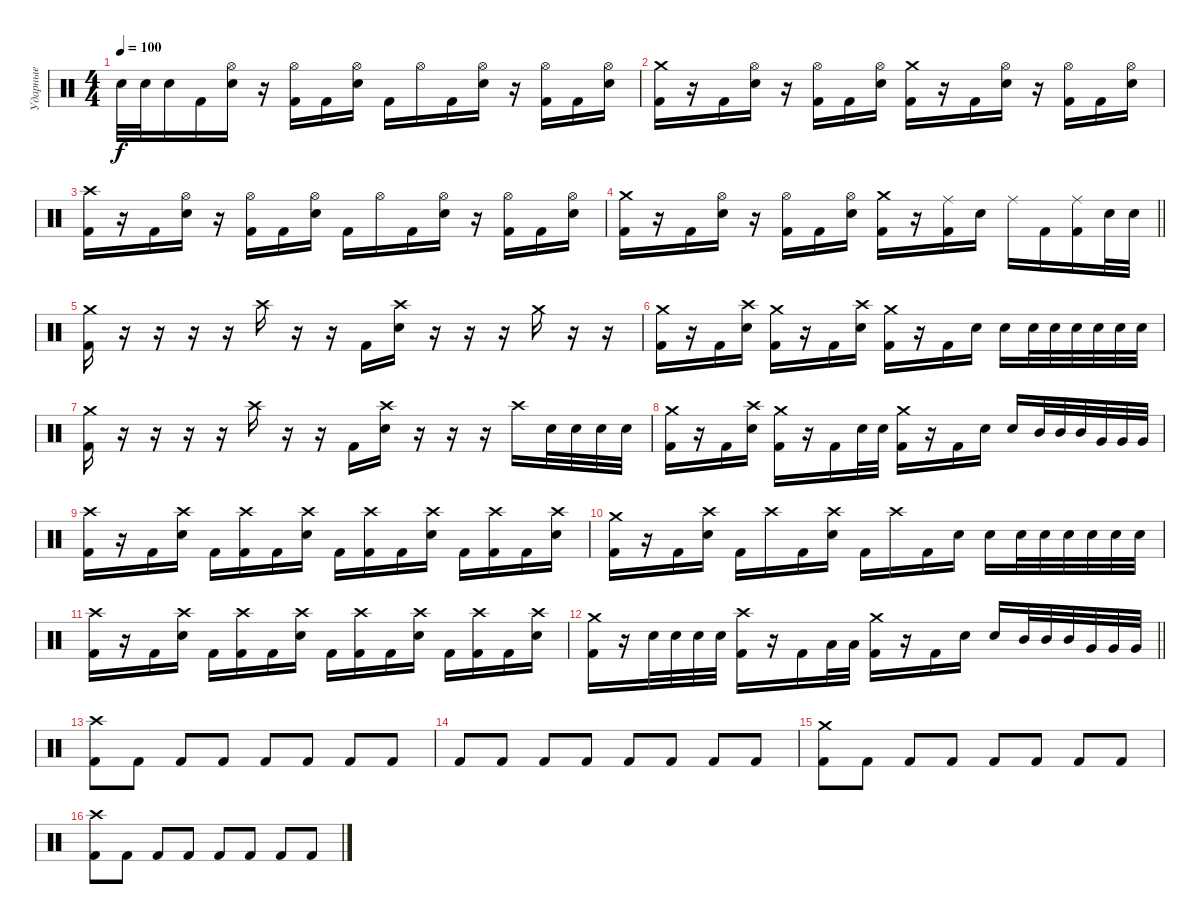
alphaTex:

\track ("Ударные" "Ударные") {instrument percussion}
\staff {score}
\articulation defaults
\ts (4 4)
\tempo 100
\clef neutral
\ks c "Electric Snare (hit)".32{dy f} "Electric Snare (hit)".32 "Electric Snare (hit)".16 "Kick (hit) 2".16
("Hi-Hat (open)" "Electric Snare (hit)").16 r.16 ("Hi-Hat (open)" "Kick (hit) 2").16 "Kick (hit) 2".16 ("Hi-Hat (open)" "Electric Snare (hit)").16 "Kick (hit) 2".16 "Hi-Hat (open)".16 "Kick (hit) 2".16 ("Hi-Hat (open)" "Electric Snare (hit)").16 r.16 ("Hi-Hat (open)" "Kick (hit) 2").16 "Kick (hit) 2".16 ("Hi-Hat (open)" "Electric Snare (hit)").16 |
("Crash medium (hit)" "Kick (hit) 2").16 r.16 "Kick (hit) 2".16 ("Hi-Hat (open)" "Electric Snare (hit)").16 r.16 ("Hi-Hat (open)" "Kick (hit) 2").16 "Kick (hit) 2".16 ("Hi-Hat (open)" "Electric Snare (hit)").16 ("Crash medium (hit)" "Kick (hit) 2").16 r.16 "Kick (hit) 2".16 ("Hi-Hat (open)" "Electric Snare (hit)").16 r.16 ("Hi-Hat (open)" "Kick (hit) 2").16 "Kick (hit) 2".16 ("Hi-Hat (open)" "Electric Snare (hit)").16 |
("Crash high (hit)" "Kick (hit) 2").16 r.16 "Kick (hit) 2".16 ("Hi-Hat (open)" "Electric Snare (hit)").16 r.16 ("Hi-Hat (open)" "Kick (hit) 2").16 "Kick (hit) 2".16 ("Hi-Hat (open)" "Electric Snare (hit)").16 "Kick (hit) 2".16 "Hi-Hat (open)".16 "Kick (hit) 2".16 ("Hi-Hat (open)" "Electric Snare (hit)").16 r.16 ("Hi-Hat (open)" "Kick (hit) 2").16 "Kick (hit) 2".16 ("Hi-Hat (open)" "Electric Snare (hit)").16 |
\barLineRight lightlight
("Crash medium (hit)" "Kick (hit) 2").16 r.16 "Kick (hit) 2".16 ("Hi-Hat (open)" "Electric Snare (hit)").16 r.16 ("Hi-Hat (open)" "Kick (hit) 2").16 "Kick (hit) 2".16 ("Hi-Hat (open)" "Electric Snare (hit)").16 ("Crash medium (hit)" "Kick (hit) 2").16 r.16 ("Ride (middle)" "Kick (hit) 2").16 "Electric Snare (hit)".16 "Ride (middle)".16 "Kick (hit) 2".16 ("Ride (middle)" "Kick (hit) 2").16 "Electric Snare (hit)".32 "Electric Snare (hit)".32 |
\section ("" "")
("Crash medium (hit)" "Kick (hit) 2").16 r.16 r.16 r.16 r.16 "Crash high (hit)".16 r.16 r.16 "Kick (hit) 2".16 ("Crash high (hit)" "Electric Snare (hit)").16 r.16 r.16 r.16 "Crash medium (hit)".16 r.16 r.16 |
("Crash medium (hit)" "Kick (hit) 2").16 r.16 "Kick (hit) 2".16 ("Crash high (hit)" "Electric Snare (hit)").16 ("Crash medium (hit)" "Kick (hit) 2").16 r.16 "Kick (hit) 2".16 ("Crash high (hit)" "Electric Snare (hit)").16 ("Crash medium (hit)" "Kick (hit) 2").16 r.16 "Kick (hit) 2".16 "Electric Snare (hit)".16 "Electric Snare (hit)".16 "Electric Snare (hit)".32 "Electric Snare (hit)".32 "Electric Snare (hit)".32 "Electric Snare (hit)".32 "Electric Snare (hit)".32 "Electric Snare (hit)".32 |
("Crash medium (hit)" "Kick (hit) 2").16 r.16 r.16 r.16 r.16 "Crash high (hit)".16 r.16 r.16 "Kick (hit) 2".16 ("Crash high (hit)" "Electric Snare (hit)").16 r.16 r.16 r.16 "Crash high (hit)".16 "Electric Snare (hit)".32 "Electric Snare (hit)".32 "Electric Snare (hit)".32 "Electric Snare (hit)".32 |
("Crash medium (hit)" "Kick (hit) 2").16 r.16 "Kick (hit) 2".16 ("Crash high (hit)" "Electric Snare (hit)").16 ("Crash medium (hit)" "Kick (hit) 2").16 r.16 "Kick (hit) 2".16 "Electric Snare (hit)".32 "Electric Snare (hit)".32 ("Crash medium (hit)" "Kick (hit) 2").16 r.16 "Kick (hit) 2".16 "Electric Snare (hit)".16 "Electric Snare (hit)".16 "Mid Tom (hit)".32 "Mid Tom (hit)".32 "Mid Tom (hit)".32 "Very Low Tom (hit)".32 "Very Low Tom (hit)".32 "Very Low Tom (hit)".32 |
("Crash high (hit)" "Kick (hit) 2").16 r.16 "Kick (hit) 2".16 ("Crash high (hit)" "Electric Snare (hit)").16 "Kick (hit) 2".16 ("Crash high (hit)" "Kick (hit) 2").16 "Kick (hit) 2".16 ("Crash high (hit)" "Electric Snare (hit)").16 "Kick (hit) 2".16 ("Crash high (hit)" "Kick (hit) 2").16 "Kick (hit) 2".16 ("Crash high (hit)" "Electric Snare (hit)").16 "Kick (hit) 2".16 ("Crash high (hit)" "Kick (hit) 2").16 "Kick (hit) 2".16 ("Crash high (hit)" "Electric Snare (hit)").16 |
("Crash medium (hit)" "Kick (hit) 2").16 r.16 "Kick (hit) 2".16 ("Crash high (hit)" "Electric Snare (hit)").16 "Kick (hit) 2".16 "Crash high (hit)".16 "Kick (hit) 2".16 ("Crash high (hit)" "Electric Snare (hit)").16 "Kick (hit) 2".16 "Crash high (hit)".16 "Kick (hit) 2".16 "Electric Snare (hit)".16 "Electric Snare (hit)".16 "Electric Snare (hit)".32 "Electric Snare (hit)".32 "Electric Snare (hit)".32 "Electric Snare (hit)".32 "Electric Snare (hit)".32 "Electric Snare (hit)".32 |
("Crash high (hit)" "Kick (hit) 2").16 r.16 "Kick (hit) 2".16 ("Crash high (hit)" "Electric Snare (hit)").16 "Kick (hit) 2".16 ("Crash high (hit)" "Kick (hit) 2").16 "Kick (hit) 2".16 ("Crash high (hit)" "Electric Snare (hit)").16 "Kick (hit) 2".16 ("Crash high (hit)" "Kick (hit) 2").16 "Kick (hit) 2".16 ("Crash high (hit)" "Electric Snare (hit)").16 "Kick (hit) 2".16 ("Crash high (hit)" "Kick (hit) 2").16 "Kick (hit) 2".16 ("Crash high (hit)" "Electric Snare (hit)").16 |
\barLineRight lightlight
("Crash medium (hit)" "Kick (hit) 2").16 r.16 "Electric Snare (hit)".32 "Electric Snare (hit)".32 "Electric Snare (hit)".32 "Electric Snare (hit)".32 ("Crash high (hit)" "Kick (hit) 2").16 r.16 "Kick (hit) 2".16 "Low Floor Tom (hit)".32 "Low Floor Tom (hit)".32 ("Crash medium (hit)" "Kick (hit) 2").16 r.16 "Kick (hit) 2".16 "Electric Snare (hit)".16 "Electric Snare (hit)".16 "Mid Tom (hit)".32 "Mid Tom (hit)".32 "Mid Tom (hit)".32 "Very Low Tom (hit)".32 "Very Low Tom (hit)".32 "Very Low Tom (hit)".32 |
\section ("" "")
("Crash high (hit)" "Kick (hit) 2").8 "Kick (hit) 2".8 "Kick (hit) 2".8 "Kick (hit) 2".8 "Kick (hit) 2".8 "Kick (hit) 2".8 "Kick (hit) 2".8 "Kick (hit) 2".8 |
"Kick (hit) 2".8 "Kick (hit) 2".8 "Kick (hit) 2".8 "Kick (hit) 2".8 "Kick (hit) 2".8 "Kick (hit) 2".8 "Kick (hit) 2".8 "Kick (hit) 2".8 |
("Crash medium (hit)" "Kick (hit) 2").8 "Kick (hit) 2".8 "Kick (hit) 2".8 "Kick (hit) 2".8 "Kick (hit) 2".8 "Kick (hit) 2".8 "Kick (hit) 2".8 "Kick (hit) 2".8 |
("Crash high (hit)" "Kick (hit) 2").8 "Kick (hit) 2".8 "Kick (hit) 2".8 "Kick (hit) 2".8 "Kick (hit) 2".8 "Kick (hit) 2".8 "Kick (hit) 2".8 "Kick (hit) 2".8
